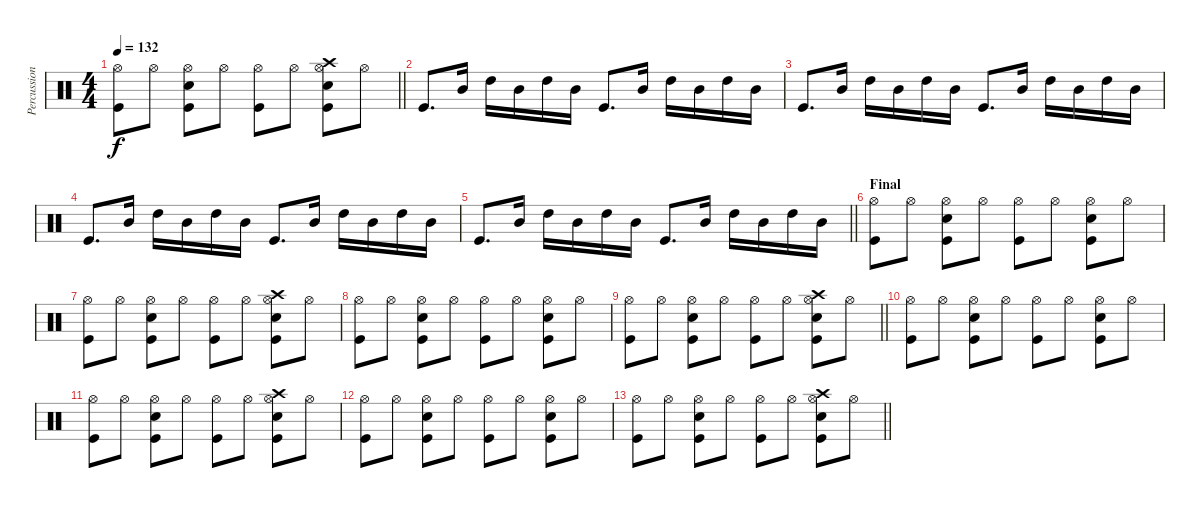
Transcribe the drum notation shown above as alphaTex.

\track ("Percussions" "Percussion") {instrument percussion}
\staff {score}
\articulation defaults
\ts (4 4)
\tempo 132
\clef neutral
\barLineRight lightlight
\ks c
("Hi-Hat (open)" "Kick (hit)").8{dy f} "Hi-Hat (open)".8 ("Snare (hit) 2" "Hi-Hat (open)" "Kick (hit)").8 "Hi-Hat (open)".8 ("Hi-Hat (open)" "Kick (hit)").8 "Hi-Hat (open)".8 ("Snare (hit) 2" "Hi-Hat (open)" "Crash high (hit)" "Kick (hit)").8 "Hi-Hat (open)".8 |
"Kick (hit)".8{d} "Mid Tom (hit)".16 "High Tom (hit)".16 "Mid Tom (hit)".16 "High Tom (hit)".16 "Mid Tom (hit)".16 "Kick (hit)".8{d} "Mid Tom (hit)".16 "High Tom (hit)".16 "Mid Tom (hit)".16 "High Tom (hit)".16 "Mid Tom (hit)".16 |
"Kick (hit)".8{d} "Mid Tom (hit)".16 "High Tom (hit)".16 "Mid Tom (hit)".16 "High Tom (hit)".16 "Mid Tom (hit)".16 "Kick (hit)".8{d} "Mid Tom (hit)".16 "High Tom (hit)".16 "Mid Tom (hit)".16 "High Tom (hit)".16 "Mid Tom (hit)".16 |
"Kick (hit)".8{d} "Mid Tom (hit)".16 "High Tom (hit)".16 "Mid Tom (hit)".16 "High Tom (hit)".16 "Mid Tom (hit)".16 "Kick (hit)".8{d} "Mid Tom (hit)".16 "High Tom (hit)".16 "Mid Tom (hit)".16 "High Tom (hit)".16 "Mid Tom (hit)".16 |
\barLineRight lightlight "Kick (hit)".8{d} "Mid Tom (hit)".16 "High Tom (hit)".16 "Mid Tom (hit)".16 "High Tom (hit)".16 "Mid Tom (hit)".16 "Kick (hit)".8{d} "Mid Tom (hit)".16 "High Tom (hit)".16 "Mid Tom (hit)".16 "High Tom (hit)".16 "Mid Tom (hit)".16
|
\section ("" "Final")
("Hi-Hat (open)" "Kick (hit)").8 "Hi-Hat (open)".8 ("Snare (hit) 2" "Hi-Hat (open)" "Kick (hit)").8 "Hi-Hat (open)".8 ("Hi-Hat (open)" "Kick (hit)").8 "Hi-Hat (open)".8 ("Snare (hit) 2" "Hi-Hat (open)" "Kick (hit)").8 "Hi-Hat (open)".8 |
("Hi-Hat (open)" "Kick (hit)").8 "Hi-Hat (open)".8 ("Snare (hit) 2" "Hi-Hat (open)" "Kick (hit)").8 "Hi-Hat (open)".8 ("Hi-Hat (open)" "Kick (hit)").8 "Hi-Hat (open)".8 ("Snare (hit) 2" "Hi-Hat (open)" "Crash high (hit)" "Kick (hit)").8 "Hi-Hat (open)".8 |
("Hi-Hat (open)" "Kick (hit)").8 "Hi-Hat (open)".8 ("Snare (hit) 2" "Hi-Hat (open)" "Kick (hit)").8 "Hi-Hat (open)".8 ("Hi-Hat (open)" "Kick (hit)").8 "Hi-Hat (open)".8 ("Snare (hit) 2" "Hi-Hat (open)" "Kick (hit)").8 "Hi-Hat (open)".8 |
\barLineRight lightlight
("Hi-Hat (open)" "Kick (hit)").8 "Hi-Hat (open)".8 ("Snare (hit) 2" "Hi-Hat (open)" "Kick (hit)").8 "Hi-Hat (open)".8 ("Hi-Hat (open)" "Kick (hit)").8 "Hi-Hat (open)".8 ("Snare (hit) 2" "Hi-Hat (open)" "Crash high (hit)" "Kick (hit)").8 "Hi-Hat (open)".8 |
("Hi-Hat (open)" "Kick (hit)").8 "Hi-Hat (open)".8 ("Snare (hit) 2" "Hi-Hat (open)" "Kick (hit)").8 "Hi-Hat (open)".8 ("Hi-Hat (open)" "Kick (hit)").8 "Hi-Hat (open)".8 ("Snare (hit) 2" "Hi-Hat (open)" "Kick (hit)").8 "Hi-Hat (open)".8 |
("Hi-Hat (open)" "Kick (hit)").8 "Hi-Hat (open)".8 ("Snare (hit) 2" "Hi-Hat (open)" "Kick (hit)").8 "Hi-Hat (open)".8 ("Hi-Hat (open)" "Kick (hit)").8 "Hi-Hat (open)".8 ("Snare (hit) 2" "Hi-Hat (open)" "Crash high (hit)" "Kick (hit)").8 "Hi-Hat (open)".8 |
("Hi-Hat (open)" "Kick (hit)").8 "Hi-Hat (open)".8 ("Snare (hit) 2" "Hi-Hat (open)" "Kick (hit)").8 "Hi-Hat (open)".8 ("Hi-Hat (open)" "Kick (hit)").8 "Hi-Hat (open)".8 ("Snare (hit) 2" "Hi-Hat (open)" "Kick (hit)").8 "Hi-Hat (open)".8 |
\barLineRight lightlight
("Hi-Hat (open)" "Kick (hit)").8 "Hi-Hat (open)".8 ("Snare (hit) 2" "Hi-Hat (open)" "Kick (hit)").8 "Hi-Hat (open)".8 ("Hi-Hat (open)" "Kick (hit)").8 "Hi-Hat (open)".8 ("Snare (hit) 2" "Hi-Hat (open)" "Crash high (hit)" "Kick (hit)").8 "Hi-Hat (open)".8
